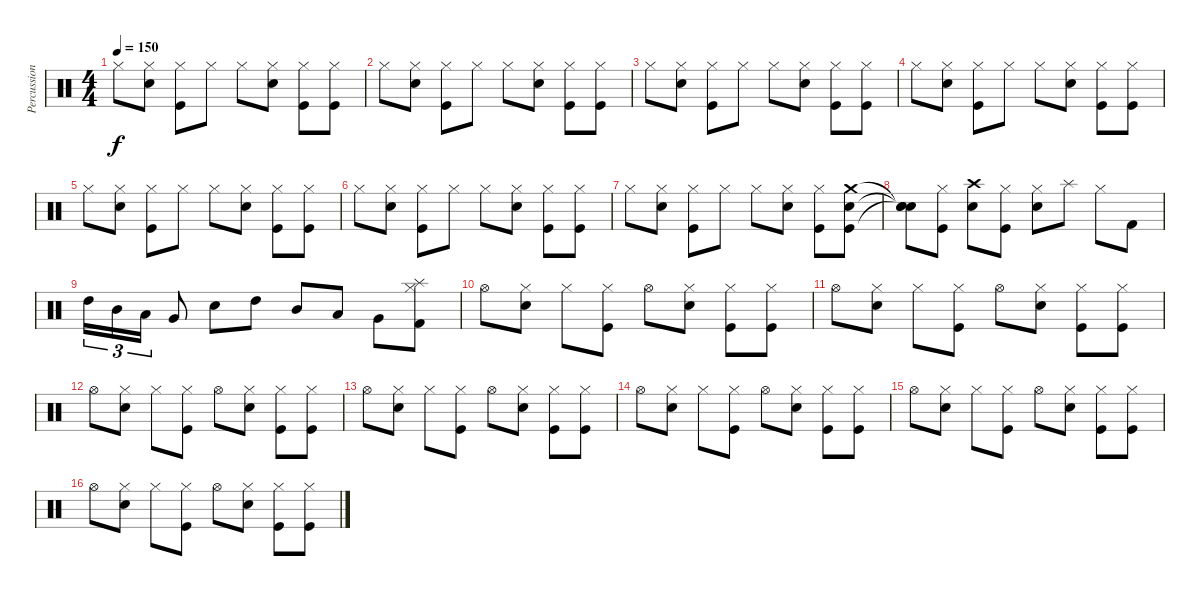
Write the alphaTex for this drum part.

\track ("Percussioni" "Percussion") {instrument percussion}
\staff {score}
\articulation defaults
\ts (4 4)
\tempo 150
\clef neutral
\ks c "Hi-Hat (closed)".8{dy f}
("Hi-Hat (closed)" "Snare (hit) 2").8 ("Hi-Hat (closed)" "Kick (hit)").8 "Hi-Hat (closed)".8 "Hi-Hat (closed)".8 ("Hi-Hat (closed)" "Snare (hit) 2").8 ("Hi-Hat (closed)" "Kick (hit)").8 ("Hi-Hat (closed)" "Kick (hit)").8 |
"Hi-Hat (closed)".8 ("Hi-Hat (closed)" "Snare (hit) 2").8 ("Hi-Hat (closed)" "Kick (hit)").8 "Hi-Hat (closed)".8 "Hi-Hat (closed)".8 ("Hi-Hat (closed)" "Snare (hit) 2").8 ("Hi-Hat (closed)" "Kick (hit)").8 ("Hi-Hat (closed)" "Kick (hit)").8 |
"Hi-Hat (closed)".8 ("Hi-Hat (closed)" "Snare (hit) 2").8 ("Hi-Hat (closed)" "Kick (hit)").8 "Hi-Hat (closed)".8 "Hi-Hat (closed)".8 ("Hi-Hat (closed)" "Snare (hit) 2").8 ("Hi-Hat (closed)" "Kick (hit)").8 ("Hi-Hat (closed)" "Kick (hit)").8 |
"Hi-Hat (closed)".8 ("Hi-Hat (closed)" "Snare (hit) 2").8 ("Hi-Hat (closed)" "Kick (hit)").8 "Hi-Hat (closed)".8 "Hi-Hat (closed)".8 ("Hi-Hat (closed)" "Snare (hit) 2").8 ("Hi-Hat (closed)" "Kick (hit)").8 ("Hi-Hat (closed)" "Kick (hit)").8 |
"Hi-Hat (closed)".8 ("Hi-Hat (closed)" "Snare (hit) 2").8 ("Hi-Hat (closed)" "Kick (hit)").8 "Hi-Hat (closed)".8 "Hi-Hat (closed)".8 ("Hi-Hat (closed)" "Snare (hit) 2").8 ("Hi-Hat (closed)" "Kick (hit)").8 ("Hi-Hat (closed)" "Kick (hit)").8 |
"Hi-Hat (closed)".8 ("Hi-Hat (closed)" "Snare (hit) 2").8 ("Hi-Hat (closed)" "Kick (hit)").8 "Hi-Hat (closed)".8 "Hi-Hat (closed)".8 ("Hi-Hat (closed)" "Snare (hit) 2").8 ("Hi-Hat (closed)" "Kick (hit)").8 ("Hi-Hat (closed)" "Kick (hit)").8 |
"Hi-Hat (closed)".8 ("Hi-Hat (closed)" "Snare (hit) 2").8 ("Hi-Hat (closed)" "Kick (hit)").8 "Hi-Hat (closed)".8 "Hi-Hat (closed)".8 ("Hi-Hat (closed)" "Snare (hit) 2").8 ("Hi-Hat (closed)" "Kick (hit)").8 ("Crash medium (hit)" "Snare (hit) 2" "Kick (hit)").8 |
("Snare (hit)"{t} "Snare (hit)"{t} "Snare (hit)"{t}).8 ("Hi-Hat (closed)" "Kick (hit)").8 ("Crash high (hit)" "Snare (hit) 2").8 ("Hi-Hat (closed)" "Kick (hit)").8 ("Hi-Hat (closed)" "Snare (hit) 2").8 "Splash (hit)".8 "Hi-Hat (closed)".8 "Kick (hit) 2".8 |
"High Tom (hit)".16{tu (3 2)} "Mid Tom (hit)".16{tu (3 2)} "Low Tom (hit)".16{tu (3 2)} "Very Low Tom (hit)".8 "Snare (hit) 2".8 "High Tom (hit)".8 "Mid Tom (hit)".8 "Low Tom (hit)".8 "Very Low Tom (hit)".8 ("Splash (hit)" "Hi-Hat (closed)" "Kick (hit) 2").8 |
"Hi-Hat (open)".8 ("Hi-Hat (closed)" "Snare (hit) 2").8 "Hi-Hat (closed)".8 ("Hi-Hat (closed)" "Kick (hit)").8 "Hi-Hat (open)".8 ("Hi-Hat (closed)" "Snare (hit) 2").8 ("Hi-Hat (closed)" "Kick (hit)").8 ("Hi-Hat (closed)" "Kick (hit)").8 |
"Hi-Hat (open)".8 ("Hi-Hat (closed)" "Snare (hit) 2").8 "Hi-Hat (closed)".8 ("Hi-Hat (closed)" "Kick (hit)").8 "Hi-Hat (open)".8 ("Hi-Hat (closed)" "Snare (hit) 2").8 ("Hi-Hat (closed)" "Kick (hit)").8 ("Hi-Hat (closed)" "Kick (hit)").8 |
"Hi-Hat (open)".8 ("Hi-Hat (closed)" "Snare (hit) 2").8 "Hi-Hat (closed)".8 ("Hi-Hat (closed)" "Kick (hit)").8 "Hi-Hat (open)".8 ("Hi-Hat (closed)" "Snare (hit) 2").8 ("Hi-Hat (closed)" "Kick (hit)").8 ("Hi-Hat (closed)" "Kick (hit)").8 |
"Hi-Hat (open)".8 ("Hi-Hat (closed)" "Snare (hit) 2").8 "Hi-Hat (closed)".8 ("Hi-Hat (closed)" "Kick (hit)").8 "Hi-Hat (open)".8 ("Hi-Hat (closed)" "Snare (hit) 2").8 ("Hi-Hat (closed)" "Kick (hit)").8 ("Hi-Hat (closed)" "Kick (hit)").8 |
"Hi-Hat (open)".8 ("Hi-Hat (closed)" "Snare (hit) 2").8 "Hi-Hat (closed)".8 ("Hi-Hat (closed)" "Kick (hit)").8 "Hi-Hat (open)".8 ("Hi-Hat (closed)" "Snare (hit) 2").8 ("Hi-Hat (closed)" "Kick (hit)").8 ("Hi-Hat (closed)" "Kick (hit)").8 |
"Hi-Hat (open)".8 ("Hi-Hat (closed)" "Snare (hit) 2").8 "Hi-Hat (closed)".8 ("Hi-Hat (closed)" "Kick (hit)").8 "Hi-Hat (open)".8 ("Hi-Hat (closed)" "Snare (hit) 2").8 ("Hi-Hat (closed)" "Kick (hit)").8 ("Hi-Hat (closed)" "Kick (hit)").8 |
"Hi-Hat (open)".8 ("Hi-Hat (closed)" "Snare (hit) 2").8 "Hi-Hat (closed)".8 ("Hi-Hat (closed)" "Kick (hit)").8 "Hi-Hat (open)".8 ("Hi-Hat (closed)" "Snare (hit) 2").8 ("Hi-Hat (closed)" "Kick (hit)").8 ("Hi-Hat (closed)" "Kick (hit)").8
